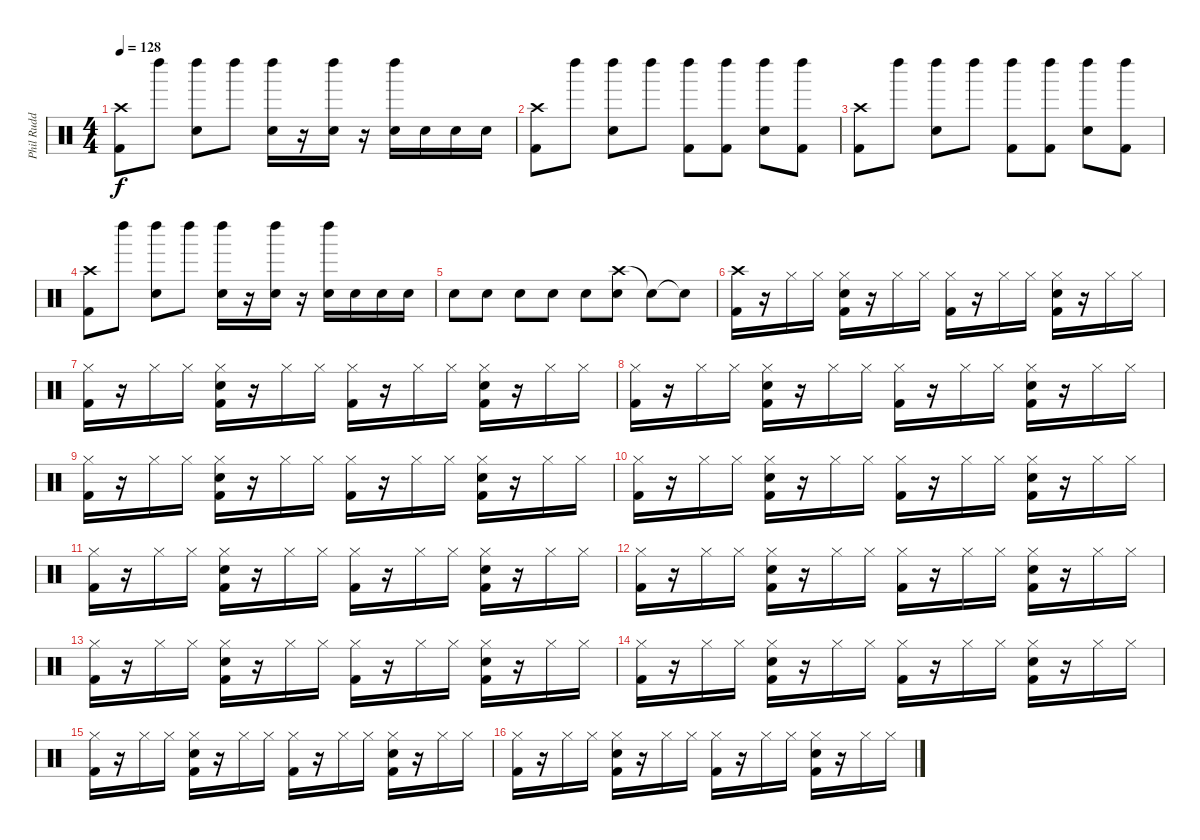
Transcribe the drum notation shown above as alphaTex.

\track ("Phil Rudd" "Phil Rudd") {instrument percussion}
\staff {score}
\articulation defaults
\ts (4 4)
\tempo 128
\clef neutral
\ks c
("Crash high (hit)" "Kick (hit) 2").8{dy f} "Left Maraca (hit)".8 ("Left Maraca (hit)" "Snare (hit) 2").8 "Left Maraca (hit)".8 ("Left Maraca (hit)" "Snare (hit) 2").16 r.16 ("Left Maraca (hit)" "Snare (hit) 2").16 r.16 ("Left Maraca (hit)" "Snare (hit) 2").16 "Snare (hit) 2".16 "Snare (hit) 2".16 "Snare (hit) 2".16 |
("Crash high (hit)" "Kick (hit) 2").8 "Left Maraca (hit)".8 ("Left Maraca (hit)" "Snare (hit) 2").8 "Left Maraca (hit)".8 ("Left Maraca (hit)" "Kick (hit) 2").8 ("Left Maraca (hit)" "Kick (hit) 2").8 ("Left Maraca (hit)" "Snare (hit) 2").8 ("Left Maraca (hit)" "Kick (hit) 2").8 |
("Crash high (hit)" "Kick (hit) 2").8 "Left Maraca (hit)".8 ("Left Maraca (hit)" "Snare (hit) 2").8 "Left Maraca (hit)".8 ("Left Maraca (hit)" "Kick (hit) 2").8 ("Left Maraca (hit)" "Kick (hit) 2").8 ("Left Maraca (hit)" "Snare (hit) 2").8 ("Left Maraca (hit)" "Kick (hit) 2").8 |
("Crash high (hit)" "Kick (hit) 2").8 "Left Maraca (hit)".8 ("Left Maraca (hit)" "Snare (hit) 2").8 "Left Maraca (hit)".8 ("Left Maraca (hit)" "Snare (hit) 2").16 r.16 ("Left Maraca (hit)" "Snare (hit) 2").16 r.16 ("Left Maraca (hit)" "Snare (hit) 2").16 "Snare (hit) 2".16 "Snare (hit) 2".16 "Snare (hit) 2".16 |
"Snare (hit) 2".8 "Snare (hit) 2".8 "Snare (hit) 2".8 "Snare (hit) 2".8 "Snare (hit) 2".8 ("Crash high (hit)" "Snare (hit) 2").8 "Snare (hit)"{t}.8 "Snare (hit)"{t}.8 |
("Crash high (hit)" "Kick (hit) 2").16 r.16 "Hi-Hat (closed)".16 "Hi-Hat (closed)".16 ("Hi-Hat (closed)" "Snare (hit) 2" "Kick (hit) 2").16 r.16 "Hi-Hat (closed)".16 "Hi-Hat (closed)".16 ("Hi-Hat (closed)" "Kick (hit) 2").16 r.16 "Hi-Hat (closed)".16 "Hi-Hat (closed)".16 ("Hi-Hat (closed)" "Snare (hit) 2" "Kick (hit) 2").16 r.16 "Hi-Hat (closed)".16 "Hi-Hat (closed)".16 |
("Hi-Hat (closed)" "Kick (hit) 2").16 r.16 "Hi-Hat (closed)".16 "Hi-Hat (closed)".16 ("Hi-Hat (closed)" "Snare (hit) 2" "Kick (hit) 2").16 r.16 "Hi-Hat (closed)".16 "Hi-Hat (closed)".16 ("Hi-Hat (closed)" "Kick (hit) 2").16 r.16 "Hi-Hat (closed)".16 "Hi-Hat (closed)".16 ("Hi-Hat (closed)" "Snare (hit) 2" "Kick (hit) 2").16 r.16 "Hi-Hat (closed)".16 "Hi-Hat (closed)".16 |
("Hi-Hat (closed)" "Kick (hit) 2").16 r.16 "Hi-Hat (closed)".16 "Hi-Hat (closed)".16 ("Hi-Hat (closed)" "Snare (hit) 2" "Kick (hit) 2").16 r.16 "Hi-Hat (closed)".16 "Hi-Hat (closed)".16 ("Hi-Hat (closed)" "Kick (hit) 2").16 r.16 "Hi-Hat (closed)".16 "Hi-Hat (closed)".16 ("Hi-Hat (closed)" "Snare (hit) 2" "Kick (hit) 2").16 r.16 "Hi-Hat (closed)".16 "Hi-Hat (closed)".16 |
("Hi-Hat (closed)" "Kick (hit) 2").16 r.16 "Hi-Hat (closed)".16 "Hi-Hat (closed)".16 ("Hi-Hat (closed)" "Snare (hit) 2" "Kick (hit) 2").16 r.16 "Hi-Hat (closed)".16 "Hi-Hat (closed)".16 ("Hi-Hat (closed)" "Kick (hit) 2").16 r.16 "Hi-Hat (closed)".16 "Hi-Hat (closed)".16 ("Hi-Hat (closed)" "Snare (hit) 2" "Kick (hit) 2").16 r.16 "Hi-Hat (closed)".16 "Hi-Hat (closed)".16 |
("Hi-Hat (closed)" "Kick (hit) 2").16 r.16 "Hi-Hat (closed)".16 "Hi-Hat (closed)".16 ("Hi-Hat (closed)" "Snare (hit) 2" "Kick (hit) 2").16 r.16 "Hi-Hat (closed)".16 "Hi-Hat (closed)".16 ("Hi-Hat (closed)" "Kick (hit) 2").16 r.16 "Hi-Hat (closed)".16 "Hi-Hat (closed)".16 ("Hi-Hat (closed)" "Snare (hit) 2" "Kick (hit) 2").16 r.16 "Hi-Hat (closed)".16 "Hi-Hat (closed)".16 |
("Hi-Hat (closed)" "Kick (hit) 2").16 r.16 "Hi-Hat (closed)".16 "Hi-Hat (closed)".16 ("Hi-Hat (closed)" "Snare (hit) 2" "Kick (hit) 2").16 r.16 "Hi-Hat (closed)".16 "Hi-Hat (closed)".16 ("Hi-Hat (closed)" "Kick (hit) 2").16 r.16 "Hi-Hat (closed)".16 "Hi-Hat (closed)".16 ("Hi-Hat (closed)" "Snare (hit) 2" "Kick (hit) 2").16 r.16 "Hi-Hat (closed)".16 "Hi-Hat (closed)".16 |
("Hi-Hat (closed)" "Kick (hit) 2").16 r.16 "Hi-Hat (closed)".16 "Hi-Hat (closed)".16 ("Hi-Hat (closed)" "Snare (hit) 2" "Kick (hit) 2").16 r.16 "Hi-Hat (closed)".16 "Hi-Hat (closed)".16 ("Hi-Hat (closed)" "Kick (hit) 2").16 r.16 "Hi-Hat (closed)".16 "Hi-Hat (closed)".16 ("Hi-Hat (closed)" "Snare (hit) 2" "Kick (hit) 2").16 r.16 "Hi-Hat (closed)".16 "Hi-Hat (closed)".16 |
("Hi-Hat (closed)" "Kick (hit) 2").16 r.16 "Hi-Hat (closed)".16 "Hi-Hat (closed)".16 ("Hi-Hat (closed)" "Snare (hit) 2" "Kick (hit) 2").16 r.16 "Hi-Hat (closed)".16 "Hi-Hat (closed)".16 ("Hi-Hat (closed)" "Kick (hit) 2").16 r.16 "Hi-Hat (closed)".16 "Hi-Hat (closed)".16 ("Hi-Hat (closed)" "Snare (hit) 2" "Kick (hit) 2").16 r.16 "Hi-Hat (closed)".16 "Hi-Hat (closed)".16 |
("Hi-Hat (closed)" "Kick (hit) 2").16 r.16 "Hi-Hat (closed)".16 "Hi-Hat (closed)".16 ("Hi-Hat (closed)" "Snare (hit) 2" "Kick (hit) 2").16 r.16 "Hi-Hat (closed)".16 "Hi-Hat (closed)".16 ("Hi-Hat (closed)" "Kick (hit) 2").16 r.16 "Hi-Hat (closed)".16 "Hi-Hat (closed)".16 ("Hi-Hat (closed)" "Snare (hit) 2" "Kick (hit) 2").16 r.16 "Hi-Hat (closed)".16 "Hi-Hat (closed)".16 |
("Hi-Hat (closed)" "Kick (hit) 2").16 r.16 "Hi-Hat (closed)".16 "Hi-Hat (closed)".16 ("Hi-Hat (closed)" "Snare (hit) 2" "Kick (hit) 2").16 r.16 "Hi-Hat (closed)".16 "Hi-Hat (closed)".16 ("Hi-Hat (closed)" "Kick (hit) 2").16 r.16 "Hi-Hat (closed)".16 "Hi-Hat (closed)".16 ("Hi-Hat (closed)" "Snare (hit) 2" "Kick (hit) 2").16 r.16 "Hi-Hat (closed)".16 "Hi-Hat (closed)".16 |
("Hi-Hat (closed)" "Kick (hit) 2").16 r.16 "Hi-Hat (closed)".16 "Hi-Hat (closed)".16 ("Hi-Hat (closed)" "Snare (hit) 2" "Kick (hit) 2").16 r.16 "Hi-Hat (closed)".16 "Hi-Hat (closed)".16 ("Hi-Hat (closed)" "Kick (hit) 2").16 r.16 "Hi-Hat (closed)".16 "Hi-Hat (closed)".16 ("Hi-Hat (closed)" "Snare (hit) 2" "Kick (hit) 2").16 r.16 "Hi-Hat (closed)".16 "Hi-Hat (closed)".16
